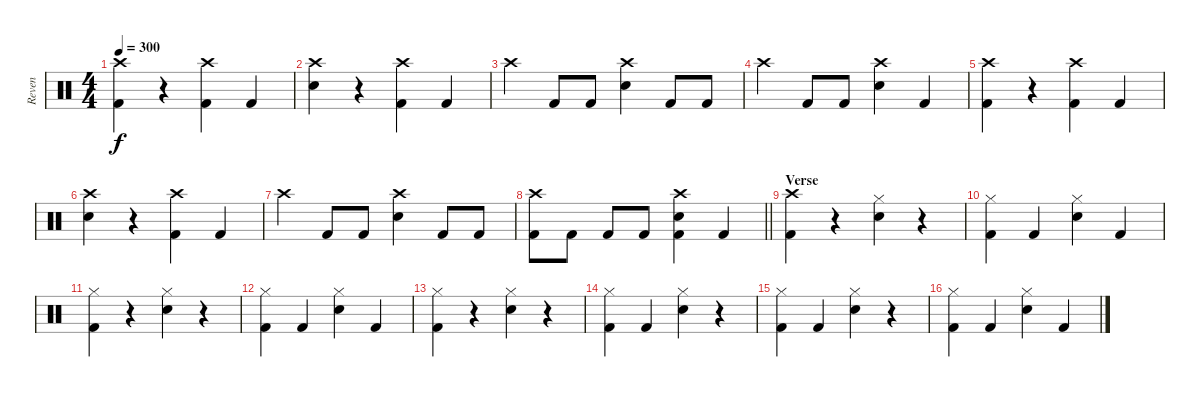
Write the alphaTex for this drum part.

\track ("Reven" "Reven") {instrument percussion}
\staff {score}
\articulation defaults
\ts (4 4)
\tempo 300
\clef neutral
\ks c
("Crash high (hit)" "Kick (hit) 2").4{dy f} r.4 ("Crash high (hit)" "Kick (hit) 2").4 "Kick (hit) 2".4 |
("Crash high (hit)" "Electric Snare (hit)").4 r.4 ("Crash high (hit)" "Kick (hit) 2").4 "Kick (hit) 2".4 |
"Crash high (hit)".4 "Kick (hit) 2".8 "Kick (hit) 2".8 ("Crash high (hit)" "Electric Snare (hit)").4 "Kick (hit) 2".8 "Kick (hit) 2".8 |
"Crash high (hit)".4 "Kick (hit) 2".8 "Kick (hit) 2".8 ("Crash high (hit)" "Electric Snare (hit)").4 "Kick (hit) 2".4 |
("Crash high (hit)" "Kick (hit) 2").4 r.4 ("Crash high (hit)" "Kick (hit) 2").4 "Kick (hit) 2".4 |
("Crash high (hit)" "Electric Snare (hit)").4 r.4 ("Crash high (hit)" "Kick (hit) 2").4 "Kick (hit) 2".4 |
"Crash high (hit)".4 "Kick (hit) 2".8 "Kick (hit) 2".8 ("Crash high (hit)" "Electric Snare (hit)").4 "Kick (hit) 2".8 "Kick (hit) 2".8 |
\barLineRight lightlight
("Crash high (hit)" "Kick (hit) 2").8 "Kick (hit) 2".8 "Kick (hit) 2".8 "Kick (hit) 2".8 ("Crash high (hit)" "Electric Snare (hit)" "Kick (hit) 2").4 "Kick (hit) 2".4 |
\section ("" "Verse")
("Crash high (hit)" "Kick (hit) 2").4 r.4 ("Hi-Hat (closed)" "Electric Snare (hit)").4 r.4 |
("Hi-Hat (closed)" "Kick (hit) 2").4 "Kick (hit) 2".4 ("Hi-Hat (closed)" "Electric Snare (hit)").4 "Kick (hit) 2".4 |
("Hi-Hat (closed)" "Kick (hit) 2").4 r.4 ("Hi-Hat (closed)" "Electric Snare (hit)").4 r.4 |
("Hi-Hat (closed)" "Kick (hit) 2").4 "Kick (hit) 2".4 ("Hi-Hat (closed)" "Electric Snare (hit)").4 "Kick (hit) 2".4 |
("Hi-Hat (closed)" "Kick (hit) 2").4 r.4 ("Hi-Hat (closed)" "Electric Snare (hit)").4 r.4 |
("Hi-Hat (closed)" "Kick (hit) 2").4 "Kick (hit) 2".4 ("Hi-Hat (closed)" "Electric Snare (hit)").4 r.4 |
("Hi-Hat (closed)" "Kick (hit) 2").4 "Kick (hit) 2".4 ("Hi-Hat (closed)" "Electric Snare (hit)").4 r.4 |
("Hi-Hat (closed)" "Kick (hit) 2").4 "Kick (hit) 2".4 ("Hi-Hat (closed)" "Electric Snare (hit)").4 "Kick (hit) 2".4
